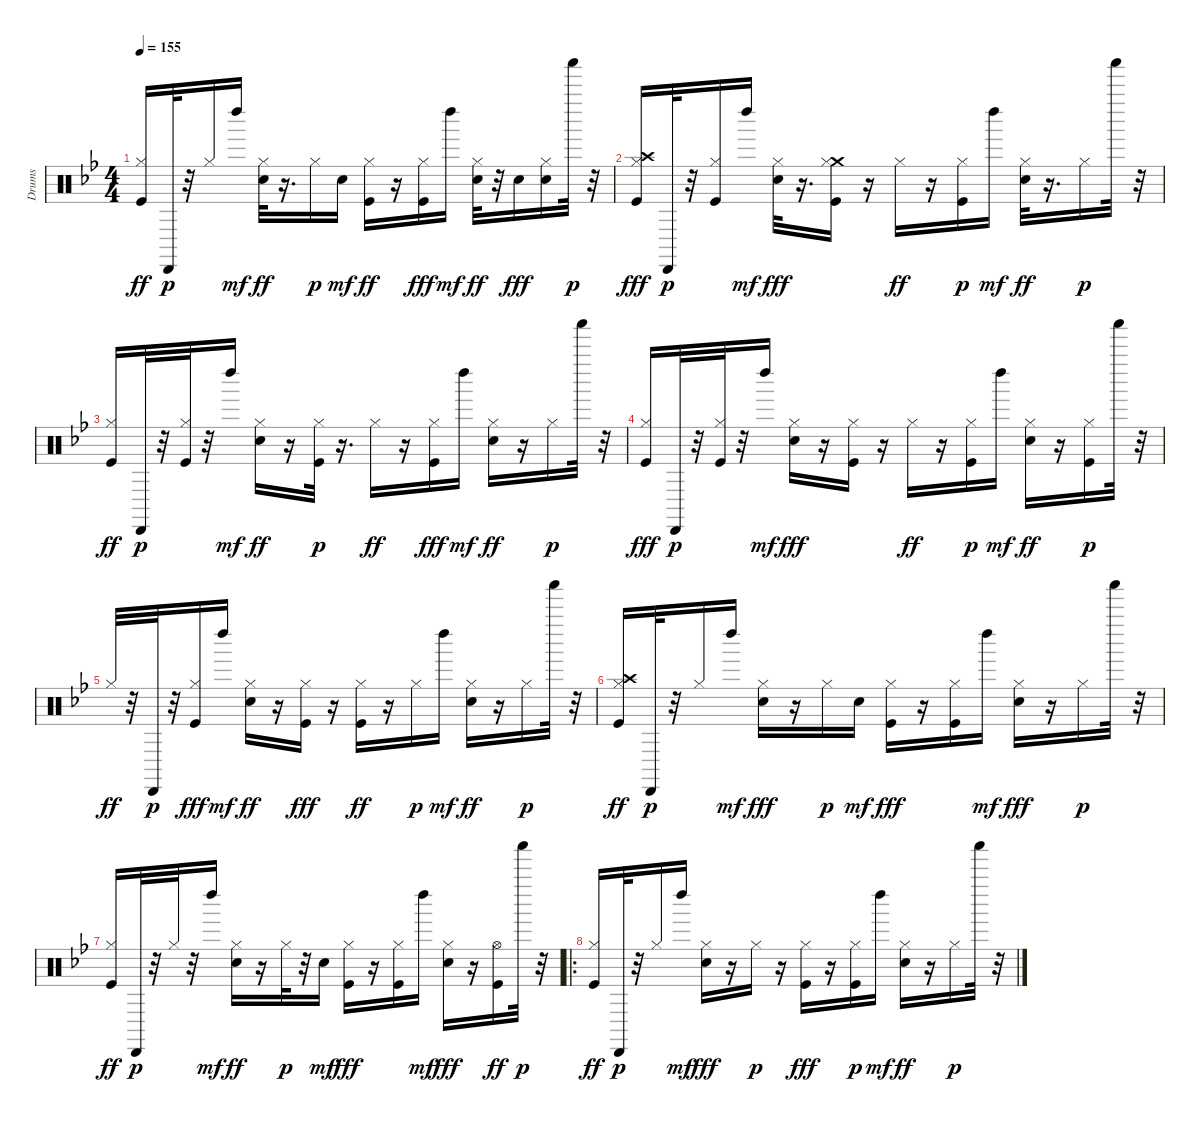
\track ("Drums" "Drums") {instrument percussion}
\staff {score}
\articulation defaults
\ts (4 4)
\tempo 155
\clef neutral
\ks bb
("Kick (hit)" "Hi-Hat (closed)").16{dy ff} "Cabasa (hit)".32{dy p} r.32 "Hi-Hat (closed)".16 "Left Maraca (hit)".16{dy mf} ("Electric Snare (hit)" "Hi-Hat (closed)").32{dy ff} r.16{d} "Hi-Hat (closed)".16{dy p} "Electric Snare (hit)".16{dy mf} ("Kick (hit)" "Hi-Hat (closed)").16{dy ff} r.16 ("Hi-Hat (closed)" "Kick (hit)").16{dy fff} "Left Maraca (hit)".16{dy mf} ("Electric Snare (hit)" "Hi-Hat (closed)").32{dy ff} r.32 "Electric Snare (hit)".16{dy fff} ("Hi-Hat (closed)" "Electric Snare (hit)").16 "Shaker (hit)".32{dy p} r.32 |
("Crash high (hit)" "Hi-Hat (closed)" "Kick (hit)").16{dy fff} "Cabasa (hit)".32{dy p} r.32 ("Kick (hit)" "Hi-Hat (closed)").16 "Left Maraca (hit)".16{dy mf} ("Hi-Hat (closed)" "Electric Snare (hit)").32{dy fff} r.16{d} ("Crash medium (hit)" "Hi-Hat (closed)" "Kick (hit)").16 r.16 "Hi-Hat (closed)".16{dy ff} r.16 ("Kick (hit)" "Hi-Hat (closed)").16{dy p} "Left Maraca (hit)".16{dy mf} ("Electric Snare (hit)" "Hi-Hat (closed)").32{dy ff} r.16{d} "Hi-Hat (closed)".16{dy p} "Shaker (hit)".32 r.32 |
("Kick (hit)" "Hi-Hat (closed)").16{dy ff} "Cabasa (hit)".32{dy p} r.32 ("Kick (hit)" "Hi-Hat (closed)").32 r.32 "Left Maraca (hit)".16{dy mf} ("Electric Snare (hit)" "Hi-Hat (closed)").16{dy ff} r.16 ("Kick (hit)" "Hi-Hat (closed)").32{dy p} r.16{d} "Hi-Hat (closed)".16{dy ff} r.16 ("Hi-Hat (closed)" "Kick (hit)").16{dy fff} "Left Maraca (hit)".16{dy mf} ("Electric Snare (hit)" "Hi-Hat (closed)").16{dy ff} r.16 "Hi-Hat (closed)".16{dy p} "Shaker (hit)".32 r.32 |
("Hi-Hat (closed)" "Kick (hit)").16{dy fff} "Cabasa (hit)".32{dy p} r.32 ("Kick (hit)" "Hi-Hat (closed)").32 r.32 "Left Maraca (hit)".16{dy mf} ("Hi-Hat (closed)" "Electric Snare (hit)").16{dy fff} r.16 ("Hi-Hat (closed)" "Kick (hit)").16 r.16 "Hi-Hat (closed)".16{dy ff} r.16 ("Kick (hit)" "Hi-Hat (closed)").16{dy p} "Left Maraca (hit)".16{dy mf} ("Electric Snare (hit)" "Hi-Hat (closed)").16{dy ff} r.16 ("Kick (hit)" "Hi-Hat (closed)").16{dy p} "Shaker (hit)".32 r.32 |
"Hi-Hat (closed)".32{dy ff} r.32 "Cabasa (hit)".32{dy p} r.32 ("Hi-Hat (closed)" "Kick (hit)").16{dy fff} "Left Maraca (hit)".16{dy mf} ("Electric Snare (hit)" "Hi-Hat (closed)").16{dy ff} r.16 ("Hi-Hat (closed)" "Kick (hit)").16{dy fff} r.16 ("Kick (hit)" "Hi-Hat (closed)").16{dy ff} r.16 "Hi-Hat (closed)".16{dy p} "Left Maraca (hit)".16{dy mf} ("Electric Snare (hit)" "Hi-Hat (closed)").16{dy ff} r.16 "Hi-Hat (closed)".16{dy p} "Shaker (hit)".32 r.32 |
("Crash high (hit)" "Kick (hit)" "Hi-Hat (closed)").16{dy ff} "Cabasa (hit)".32{dy p} r.32 "Hi-Hat (closed)".16 "Left Maraca (hit)".16{dy mf} ("Hi-Hat (closed)" "Electric Snare (hit)").16{dy fff} r.16 "Hi-Hat (closed)".16{dy p} "Electric Snare (hit)".16{dy mf} ("Hi-Hat (closed)" "Kick (hit)").16{dy fff} r.16 ("Hi-Hat (closed)" "Kick (hit)").16 "Left Maraca (hit)".16{dy mf} ("Hi-Hat (closed)" "Electric Snare (hit)").16{dy fff} r.16 "Hi-Hat (closed)".16{dy p} "Shaker (hit)".32 r.32 |
("Kick (hit)" "Hi-Hat (closed)").16{dy ff} "Cabasa (hit)".32{dy p} r.32 "Hi-Hat (closed)".32 r.32 "Left Maraca (hit)".16{dy mf} ("Electric Snare (hit)" "Hi-Hat (closed)").16{dy ff} r.16 "Hi-Hat (closed)".32{dy p} r.32 "Electric Snare (hit)".16{dy mf} ("Hi-Hat (closed)" "Kick (hit)").16{dy fff} r.16 ("Hi-Hat (closed)" "Kick (hit)").16 "Left Maraca (hit)".16{dy mf} ("Hi-Hat (closed)" "Electric Snare (hit)").16{dy fff} r.16 ("Kick (hit)" "Hi-Hat (open)").16{dy ff} "Shaker (hit)".32{dy p} r.32 |
\ro
("Kick (hit)" "Hi-Hat (closed)").16{dy ff} "Cabasa (hit)".32{dy p} r.32 "Hi-Hat (closed)".16 "Left Maraca (hit)".16{dy mf} ("Hi-Hat (closed)" "Electric Snare (hit)").16{dy fff} r.16 "Hi-Hat (closed)".16{dy p} r.16 ("Hi-Hat (closed)" "Kick (hit)").16{dy fff} r.16 ("Kick (hit)" "Hi-Hat (closed)").16{dy p} "Left Maraca (hit)".16{dy mf} ("Electric Snare (hit)" "Hi-Hat (closed)").16{dy ff} r.16 "Hi-Hat (closed)".16{dy p} "Shaker (hit)".32 r.32
